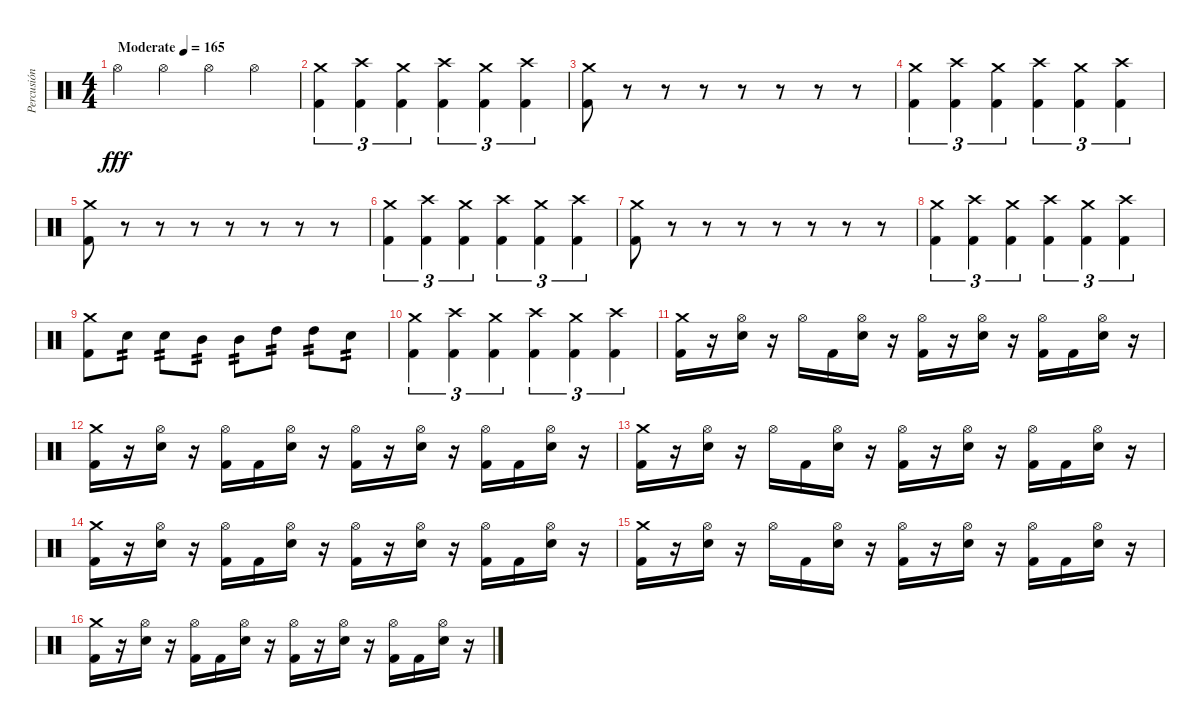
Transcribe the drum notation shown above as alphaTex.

\track ("Percusión" "Percusión") {instrument percussion}
\staff {score}
\articulation defaults
\ts (4 4)
\tempo (165 "Moderate")
\clef neutral
\ks c "Hi-Hat (open)".4{dy fff} "Hi-Hat (open)".4 "Hi-Hat (open)".4 "Hi-Hat (open)".4
|
("Crash medium (hit)" "Kick (hit) 2").4{tu (3 2)} ("Crash high (hit)" "Kick (hit) 2").4{tu (3 2)} ("Crash medium (hit)" "Kick (hit) 2").4{tu (3 2)} ("Crash high (hit)" "Kick (hit) 2").4{tu (3 2)} ("Crash medium (hit)" "Kick (hit) 2").4{tu (3 2)} ("Crash high (hit)" "Kick (hit) 2").4{tu (3 2)} |
("Crash medium (hit)" "Kick (hit) 2").8 r.8 r.8 r.8 r.8 r.8 r.8 r.8 |
("Crash medium (hit)" "Kick (hit) 2").4{tu (3 2)} ("Crash high (hit)" "Kick (hit) 2").4{tu (3 2)} ("Crash medium (hit)" "Kick (hit) 2").4{tu (3 2)} ("Crash high (hit)" "Kick (hit) 2").4{tu (3 2)} ("Crash medium (hit)" "Kick (hit) 2").4{tu (3 2)} ("Crash high (hit)" "Kick (hit) 2").4{tu (3 2)} |
("Crash medium (hit)" "Kick (hit) 2").8 r.8 r.8 r.8 r.8 r.8 r.8 r.8 |
("Crash medium (hit)" "Kick (hit) 2").4{tu (3 2)} ("Crash high (hit)" "Kick (hit) 2").4{tu (3 2)} ("Crash medium (hit)" "Kick (hit) 2").4{tu (3 2)} ("Crash high (hit)" "Kick (hit) 2").4{tu (3 2)} ("Crash medium (hit)" "Kick (hit) 2").4{tu (3 2)} ("Crash high (hit)" "Kick (hit) 2").4{tu (3 2)} |
("Crash medium (hit)" "Kick (hit) 2").8 r.8 r.8 r.8 r.8 r.8 r.8 r.8 |
("Crash medium (hit)" "Kick (hit) 2").4{tu (3 2)} ("Crash high (hit)" "Kick (hit) 2").4{tu (3 2)} ("Crash medium (hit)" "Kick (hit) 2").4{tu (3 2)} ("Crash high (hit)" "Kick (hit) 2").4{tu (3 2)} ("Crash medium (hit)" "Kick (hit) 2").4{tu (3 2)} ("Crash high (hit)" "Kick (hit) 2").4{tu (3 2)} |
("Crash medium (hit)" "Kick (hit) 2").8 "Electric Snare (hit)".8{tp 2} "Electric Snare (hit)".8{tp 2} "Mid Tom (hit)".8{tp 2} "Mid Tom (hit)".8{tp 2} "High Tom (hit)".8{tp 2} "High Tom (hit)".8{tp 2} "Electric Snare (hit)".8{tp 2} |
("Crash medium (hit)" "Kick (hit) 2").4{tu (3 2)} ("Crash high (hit)" "Kick (hit) 2").4{tu (3 2)} ("Crash medium (hit)" "Kick (hit) 2").4{tu (3 2)} ("Crash high (hit)" "Kick (hit) 2").4{tu (3 2)} ("Crash medium (hit)" "Kick (hit) 2").4{tu (3 2)} ("Crash high (hit)" "Kick (hit) 2").4{tu (3 2)} |
("Crash medium (hit)" "Kick (hit) 2").16 r.16 ("Hi-Hat (open)" "Electric Snare (hit)").16 r.16 "Hi-Hat (open)".16 "Kick (hit) 2".16 ("Hi-Hat (open)" "Electric Snare (hit)").16 r.16 ("Hi-Hat (open)" "Kick (hit) 2").16 r.16 ("Hi-Hat (open)" "Electric Snare (hit)").16 r.16 ("Hi-Hat (open)" "Kick (hit) 2").16 "Kick (hit) 2".16 ("Hi-Hat (open)" "Electric Snare (hit)").16 r.16 |
("Crash medium (hit)" "Kick (hit) 2").16 r.16 ("Hi-Hat (open)" "Electric Snare (hit)").16 r.16 ("Hi-Hat (open)" "Kick (hit) 2").16 "Kick (hit) 2".16 ("Hi-Hat (open)" "Electric Snare (hit)").16 r.16 ("Hi-Hat (open)" "Kick (hit) 2").16 r.16 ("Hi-Hat (open)" "Electric Snare (hit)").16 r.16 ("Hi-Hat (open)" "Kick (hit) 2").16 "Kick (hit) 2".16 ("Hi-Hat (open)" "Electric Snare (hit)").16 r.16 |
("Crash medium (hit)" "Kick (hit) 2").16 r.16 ("Hi-Hat (open)" "Electric Snare (hit)").16 r.16 "Hi-Hat (open)".16 "Kick (hit) 2".16 ("Hi-Hat (open)" "Electric Snare (hit)").16 r.16 ("Hi-Hat (open)" "Kick (hit) 2").16 r.16 ("Hi-Hat (open)" "Electric Snare (hit)").16 r.16 ("Hi-Hat (open)" "Kick (hit) 2").16 "Kick (hit) 2".16 ("Hi-Hat (open)" "Electric Snare (hit)").16 r.16 |
("Crash medium (hit)" "Kick (hit) 2").16 r.16 ("Hi-Hat (open)" "Electric Snare (hit)").16 r.16 ("Hi-Hat (open)" "Kick (hit) 2").16 "Kick (hit) 2".16 ("Hi-Hat (open)" "Electric Snare (hit)").16 r.16 ("Hi-Hat (open)" "Kick (hit) 2").16 r.16 ("Hi-Hat (open)" "Electric Snare (hit)").16 r.16 ("Hi-Hat (open)" "Kick (hit) 2").16 "Kick (hit) 2".16 ("Hi-Hat (open)" "Electric Snare (hit)").16 r.16 |
("Crash medium (hit)" "Kick (hit) 2").16 r.16 ("Hi-Hat (open)" "Electric Snare (hit)").16 r.16 "Hi-Hat (open)".16 "Kick (hit) 2".16 ("Hi-Hat (open)" "Electric Snare (hit)").16 r.16 ("Hi-Hat (open)" "Kick (hit) 2").16 r.16 ("Hi-Hat (open)" "Electric Snare (hit)").16 r.16 ("Hi-Hat (open)" "Kick (hit) 2").16 "Kick (hit) 2".16 ("Hi-Hat (open)" "Electric Snare (hit)").16 r.16 |
("Crash medium (hit)" "Kick (hit) 2").16 r.16 ("Hi-Hat (open)" "Electric Snare (hit)").16 r.16 ("Hi-Hat (open)" "Kick (hit) 2").16 "Kick (hit) 2".16 ("Hi-Hat (open)" "Electric Snare (hit)").16 r.16 ("Hi-Hat (open)" "Kick (hit) 2").16 r.16 ("Hi-Hat (open)" "Electric Snare (hit)").16 r.16 ("Hi-Hat (open)" "Kick (hit) 2").16 "Kick (hit) 2".16 ("Hi-Hat (open)" "Electric Snare (hit)").16 r.16
